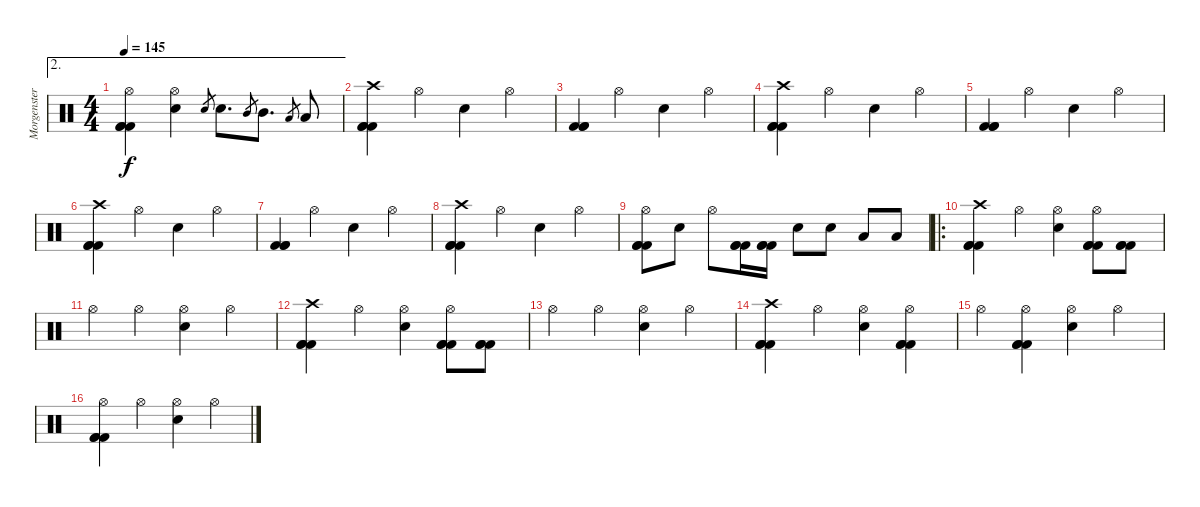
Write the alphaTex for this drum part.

\track ("Morgenstern (Schlagzeug)" "Morgenster") {instrument percussion}
\staff {score}
\articulation defaults
\ae 2
\ts (4 4)
\tempo 145
\clef neutral
\ks c
("Hi-Hat (open)" "Kick (hit) 2" "Kick (hit) 2" "Kick (hit) 2").4{dy f} ("Hi-Hat (open)" "Snare (hit) 2").4 "Snare (hit) 2".8{gr} "Snare (hit) 2".8{d} "Mid Tom (hit)".8{gr} "Mid Tom (hit)".8{d} "Low Tom (hit)".8{gr} "Low Tom (hit)".8 |
("Crash high (hit)" "Kick (hit) 2" "Kick (hit) 2" "Kick (hit) 2").4 "Hi-Hat (open)".4 "Snare (hit) 2".4 "Hi-Hat (open)".4 |
("Kick (hit) 2" "Kick (hit) 2" "Kick (hit) 2").4 "Hi-Hat (open)".4 "Snare (hit) 2".4 "Hi-Hat (open)".4 |
("Crash high (hit)" "Kick (hit) 2" "Kick (hit) 2" "Kick (hit) 2").4 "Hi-Hat (open)".4 "Snare (hit) 2".4 "Hi-Hat (open)".4 |
("Kick (hit) 2" "Kick (hit) 2" "Kick (hit) 2").4 "Hi-Hat (open)".4 "Snare (hit) 2".4 "Hi-Hat (open)".4 |
("Crash high (hit)" "Kick (hit) 2" "Kick (hit) 2" "Kick (hit) 2").4 "Hi-Hat (open)".4 "Snare (hit) 2".4 "Hi-Hat (open)".4 |
("Kick (hit) 2" "Kick (hit) 2" "Kick (hit) 2").4 "Hi-Hat (open)".4 "Snare (hit) 2".4 "Hi-Hat (open)".4 |
("Crash high (hit)" "Kick (hit) 2" "Kick (hit) 2" "Kick (hit) 2").4 "Hi-Hat (open)".4 "Snare (hit) 2".4 "Hi-Hat (open)".4 |
("Hi-Hat (open)" "Kick (hit) 2" "Kick (hit) 2" "Kick (hit) 2").8 "Snare (hit) 2".8 "Hi-Hat (open)".8 ("Kick (hit) 2" "Kick (hit) 2" "Kick (hit) 2").16 ("Kick (hit) 2" "Kick (hit) 2" "Kick (hit) 2").16 "Snare (hit) 2".8 "Snare (hit) 2".8 "Low Tom (hit)".8 "Low Tom (hit)".8 |
\ro
("Crash high (hit)" "Kick (hit) 2" "Kick (hit) 2" "Kick (hit) 2").4 "Hi-Hat (open)".4 ("Hi-Hat (open)" "Snare (hit) 2").4 ("Hi-Hat (open)" "Kick (hit) 2" "Kick (hit) 2" "Kick (hit) 2").8 ("Kick (hit) 2" "Kick (hit) 2" "Kick (hit) 2").8 |
"Hi-Hat (open)".4 "Hi-Hat (open)".4 ("Hi-Hat (open)" "Snare (hit) 2").4 "Hi-Hat (open)".4 |
("Crash high (hit)" "Kick (hit) 2" "Kick (hit) 2" "Kick (hit) 2").4 "Hi-Hat (open)".4 ("Hi-Hat (open)" "Snare (hit) 2").4 ("Hi-Hat (open)" "Kick (hit) 2" "Kick (hit) 2" "Kick (hit) 2").8 ("Kick (hit) 2" "Kick (hit) 2" "Kick (hit) 2").8 |
"Hi-Hat (open)".4 "Hi-Hat (open)".4 ("Hi-Hat (open)" "Snare (hit) 2").4 "Hi-Hat (open)".4 |
("Crash high (hit)" "Kick (hit) 2" "Kick (hit) 2" "Kick (hit) 2").4 "Hi-Hat (open)".4 ("Hi-Hat (open)" "Snare (hit) 2").4 ("Hi-Hat (open)" "Kick (hit) 2" "Kick (hit) 2" "Kick (hit) 2").4 |
"Hi-Hat (open)".4 ("Hi-Hat (open)" "Kick (hit) 2" "Kick (hit) 2" "Kick (hit) 2").4 ("Hi-Hat (open)" "Snare (hit) 2").4 "Hi-Hat (open)".4 |
("Hi-Hat (open)" "Kick (hit) 2" "Kick (hit) 2" "Kick (hit) 2").4 "Hi-Hat (open)".4 ("Hi-Hat (open)" "Snare (hit) 2").4 "Hi-Hat (open)".4
